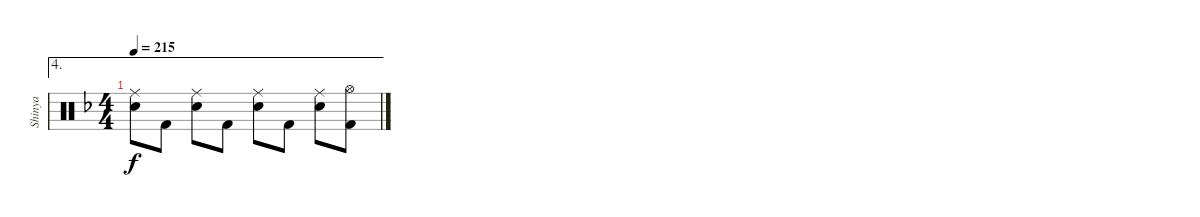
\track ("Shinya" "Shinya") {instrument percussion}
\staff {score}
\articulation defaults
\ae 4
\ts (4 4)
\tempo 215
\clef neutral
\ks f
("Ride (middle)" "Snare (hit) 2").8{dy f} "Kick (hit) 2".8 ("Ride (middle)" "Snare (hit) 2").8 "Kick (hit) 2".8 ("Ride (middle)" "Snare (hit) 2").8 "Kick (hit) 2".8 ("Ride (middle)" "Snare (hit) 2").8 ("Hi-Hat (open)" "Kick (hit) 2").8
